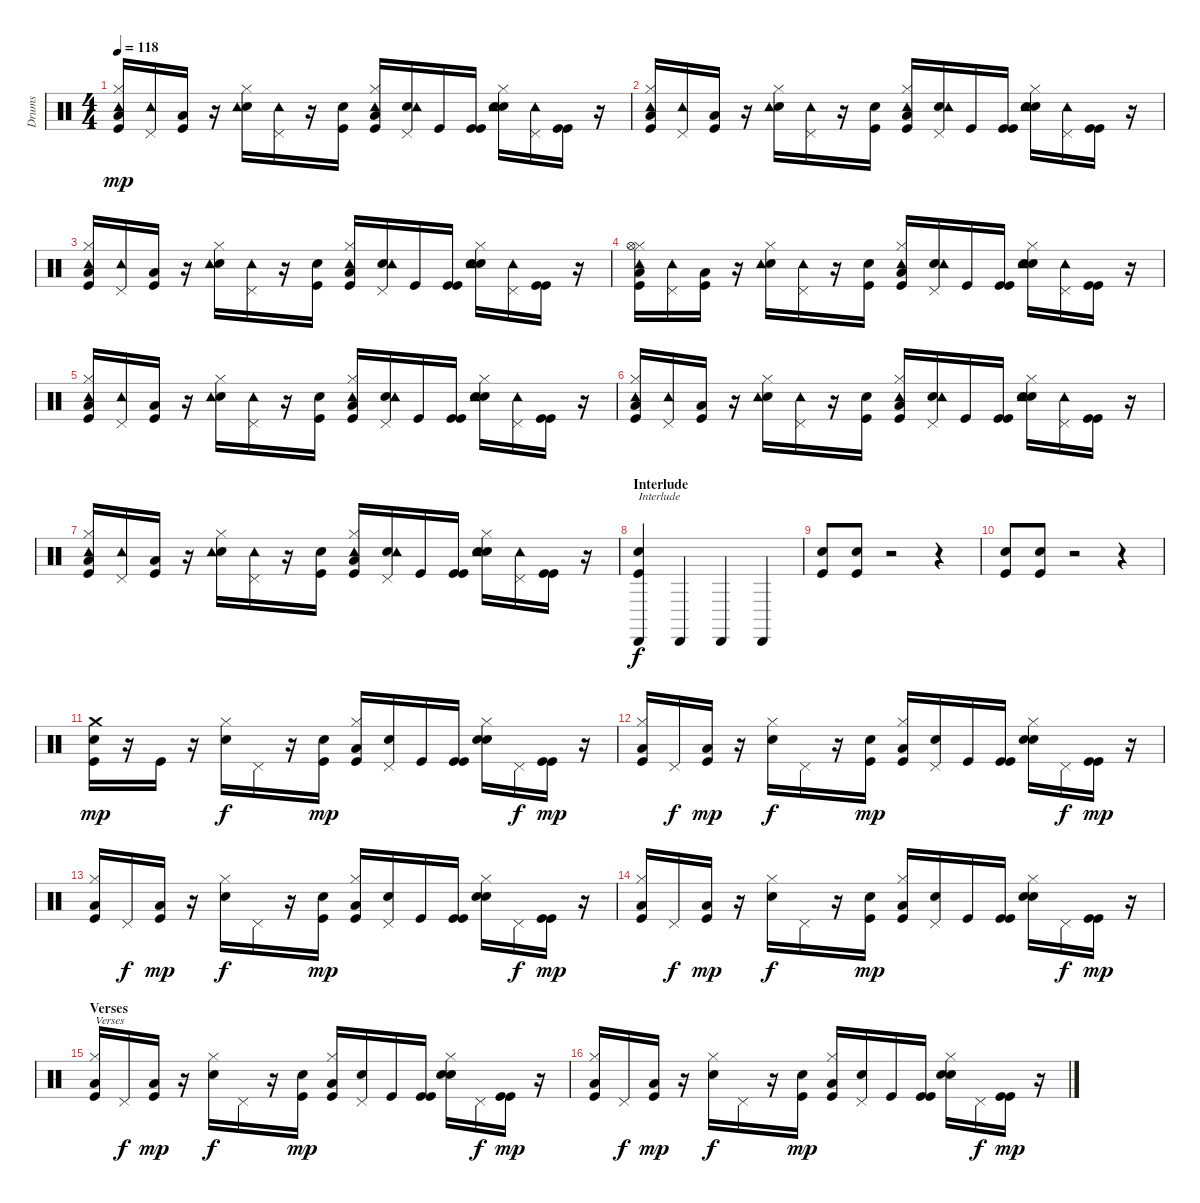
\track ("Drums" "Drums") {instrument percussion}
\staff {score}
\articulation defaults
\ts (4 4)
\tempo 118
\clef neutral
\ks c
("Low Floor Tom (hit)" "Hi-Hat (closed)" "Kick (hit)" "Tambourine (hit)").16{dy mp} ("Pedal Hi-Hat (hit)" "Tambourine (hit)").16 ("Low Floor Tom (hit)" "Kick (hit)").16 r.16 ("Electric Snare (hit)" "Hi-Hat (closed)" "Tambourine (hit)").16 ("Pedal Hi-Hat (hit)" "Tambourine (hit)").16 r.16 ("Kick (hit)" "Electric Snare (hit)").16 ("Low Floor Tom (hit)" "Hi-Hat (closed)" "Kick (hit)" "Tambourine (hit)").16 ("Pedal Hi-Hat (hit)" "Electric Snare (hit)" "Tambourine (hit)").16 "Kick (hit)".16 ("Kick (hit)" "Kick (hit)").16 ("Electric Snare (hit)" "Hi-Hat (closed)" "Electric Snare (hit)" "Tambourine (hit)").16 ("Pedal Hi-Hat (hit)" "Tambourine (hit)").16 ("Kick (hit)" "Kick (hit)").16 r.16 |
("Low Floor Tom (hit)" "Hi-Hat (closed)" "Kick (hit)" "Tambourine (hit)").16 ("Pedal Hi-Hat (hit)" "Tambourine (hit)").16 ("Low Floor Tom (hit)" "Kick (hit)").16 r.16 ("Electric Snare (hit)" "Hi-Hat (closed)" "Tambourine (hit)").16 ("Pedal Hi-Hat (hit)" "Tambourine (hit)").16 r.16 ("Kick (hit)" "Electric Snare (hit)").16 ("Low Floor Tom (hit)" "Hi-Hat (closed)" "Kick (hit)" "Tambourine (hit)").16 ("Pedal Hi-Hat (hit)" "Electric Snare (hit)" "Tambourine (hit)").16 "Kick (hit)".16 ("Kick (hit)" "Kick (hit)").16 ("Electric Snare (hit)" "Hi-Hat (closed)" "Electric Snare (hit)" "Tambourine (hit)").16 ("Pedal Hi-Hat (hit)" "Tambourine (hit)").16 ("Kick (hit)" "Kick (hit)").16 r.16 |
("Low Floor Tom (hit)" "Hi-Hat (closed)" "Kick (hit)" "Tambourine (hit)").16 ("Pedal Hi-Hat (hit)" "Tambourine (hit)").16 ("Low Floor Tom (hit)" "Kick (hit)").16 r.16 ("Electric Snare (hit)" "Hi-Hat (closed)" "Tambourine (hit)").16 ("Pedal Hi-Hat (hit)" "Tambourine (hit)").16 r.16 ("Kick (hit)" "Electric Snare (hit)").16 ("Low Floor Tom (hit)" "Hi-Hat (closed)" "Kick (hit)" "Tambourine (hit)").16 ("Pedal Hi-Hat (hit)" "Electric Snare (hit)" "Tambourine (hit)").16 "Kick (hit)".16 ("Kick (hit)" "Kick (hit)").16 ("Electric Snare (hit)" "Hi-Hat (closed)" "Electric Snare (hit)" "Tambourine (hit)").16 ("Pedal Hi-Hat (hit)" "Tambourine (hit)").16 ("Kick (hit)" "Kick (hit)").16 r.16 |
("Low Floor Tom (hit)" "Hi-Hat (closed)" "Kick (hit)" "Tambourine (hit)" "Hi-Hat (open)").16 ("Pedal Hi-Hat (hit)" "Tambourine (hit)").16 ("Low Floor Tom (hit)" "Kick (hit)").16 r.16 ("Electric Snare (hit)" "Hi-Hat (closed)" "Tambourine (hit)").16 ("Pedal Hi-Hat (hit)" "Tambourine (hit)").16 r.16 ("Kick (hit)" "Electric Snare (hit)").16 ("Low Floor Tom (hit)" "Hi-Hat (closed)" "Kick (hit)" "Tambourine (hit)").16 ("Pedal Hi-Hat (hit)" "Electric Snare (hit)" "Tambourine (hit)").16 "Kick (hit)".16 ("Kick (hit)" "Kick (hit)").16 ("Electric Snare (hit)" "Hi-Hat (closed)" "Electric Snare (hit)" "Tambourine (hit)").16 ("Pedal Hi-Hat (hit)" "Tambourine (hit)").16 ("Kick (hit)" "Kick (hit)").16 r.16 |
("Low Floor Tom (hit)" "Hi-Hat (closed)" "Kick (hit)" "Tambourine (hit)").16 ("Pedal Hi-Hat (hit)" "Tambourine (hit)").16 ("Low Floor Tom (hit)" "Kick (hit)").16 r.16 ("Electric Snare (hit)" "Hi-Hat (closed)" "Tambourine (hit)").16 ("Pedal Hi-Hat (hit)" "Tambourine (hit)").16 r.16 ("Kick (hit)" "Electric Snare (hit)").16 ("Low Floor Tom (hit)" "Hi-Hat (closed)" "Kick (hit)" "Tambourine (hit)").16 ("Pedal Hi-Hat (hit)" "Electric Snare (hit)" "Tambourine (hit)").16 "Kick (hit)".16 ("Kick (hit)" "Kick (hit)").16 ("Electric Snare (hit)" "Hi-Hat (closed)" "Electric Snare (hit)" "Tambourine (hit)").16 ("Pedal Hi-Hat (hit)" "Tambourine (hit)").16 ("Kick (hit)" "Kick (hit)").16 r.16 |
("Low Floor Tom (hit)" "Hi-Hat (closed)" "Kick (hit)" "Tambourine (hit)").16 ("Pedal Hi-Hat (hit)" "Tambourine (hit)").16 ("Low Floor Tom (hit)" "Kick (hit)").16 r.16 ("Electric Snare (hit)" "Hi-Hat (closed)" "Tambourine (hit)").16 ("Pedal Hi-Hat (hit)" "Tambourine (hit)").16 r.16 ("Kick (hit)" "Electric Snare (hit)").16 ("Low Floor Tom (hit)" "Hi-Hat (closed)" "Kick (hit)" "Tambourine (hit)").16 ("Pedal Hi-Hat (hit)" "Electric Snare (hit)" "Tambourine (hit)").16 "Kick (hit)".16 ("Kick (hit)" "Kick (hit)").16 ("Electric Snare (hit)" "Hi-Hat (closed)" "Electric Snare (hit)" "Tambourine (hit)").16 ("Pedal Hi-Hat (hit)" "Tambourine (hit)").16 ("Kick (hit)" "Kick (hit)").16 r.16 |
("Low Floor Tom (hit)" "Hi-Hat (closed)" "Kick (hit)" "Tambourine (hit)").16 ("Pedal Hi-Hat (hit)" "Tambourine (hit)").16 ("Low Floor Tom (hit)" "Kick (hit)").16 r.16 ("Electric Snare (hit)" "Hi-Hat (closed)" "Tambourine (hit)").16 ("Pedal Hi-Hat (hit)" "Tambourine (hit)").16 r.16 ("Kick (hit)" "Electric Snare (hit)").16 ("Low Floor Tom (hit)" "Hi-Hat (closed)" "Kick (hit)" "Tambourine (hit)").16 ("Pedal Hi-Hat (hit)" "Electric Snare (hit)" "Tambourine (hit)").16 "Kick (hit)".16 ("Kick (hit)" "Kick (hit)").16 ("Electric Snare (hit)" "Hi-Hat (closed)" "Electric Snare (hit)" "Tambourine (hit)").16 ("Pedal Hi-Hat (hit)" "Tambourine (hit)").16 ("Kick (hit)" "Kick (hit)").16 r.16 |
\section ("" "Interlude")
("Cabasa (hit)" "Kick (hit)" "Electric Snare (hit)").4{txt "Interlude" dy f} "Cabasa (hit)".4 "Cabasa (hit)".4 "Cabasa (hit)".4 |
("Kick (hit)" "Electric Snare (hit)").8 ("Kick (hit)" "Electric Snare (hit)").8 r.2 r.4 |
("Kick (hit)" "Electric Snare (hit)").8 ("Kick (hit)" "Electric Snare (hit)").8 r.2 r.4 |
("Electric Snare (hit)" "Crash medium (hit)" "Kick (hit)").16{dy mp} r.16 "Kick (hit)".16 r.16 ("Electric Snare (hit)" "Hi-Hat (closed)").16{dy f} "Pedal Hi-Hat (hit)".16 r.16 ("Kick (hit)" "Electric Snare (hit)").16{dy mp} ("Low Floor Tom (hit)" "Hi-Hat (closed)" "Kick (hit)").16 ("Pedal Hi-Hat (hit)" "Electric Snare (hit)").16 "Kick (hit)".16 ("Kick (hit)" "Kick (hit)").16 ("Electric Snare (hit)" "Hi-Hat (closed)" "Electric Snare (hit)").16 "Pedal Hi-Hat (hit)".16{dy f} ("Kick (hit)" "Kick (hit)").16{dy mp} r.16 |
("Low Floor Tom (hit)" "Hi-Hat (closed)" "Kick (hit)").16 "Pedal Hi-Hat (hit)".16{dy f} ("Low Floor Tom (hit)" "Kick (hit)").16{dy mp} r.16 ("Electric Snare (hit)" "Hi-Hat (closed)").16{dy f} "Pedal Hi-Hat (hit)".16 r.16 ("Kick (hit)" "Electric Snare (hit)").16{dy mp} ("Low Floor Tom (hit)" "Hi-Hat (closed)" "Kick (hit)").16 ("Pedal Hi-Hat (hit)" "Electric Snare (hit)").16 "Kick (hit)".16 ("Kick (hit)" "Kick (hit)").16 ("Electric Snare (hit)" "Hi-Hat (closed)" "Electric Snare (hit)").16 "Pedal Hi-Hat (hit)".16{dy f} ("Kick (hit)" "Kick (hit)").16{dy mp} r.16 |
("Low Floor Tom (hit)" "Hi-Hat (closed)" "Kick (hit)").16 "Pedal Hi-Hat (hit)".16{dy f} ("Low Floor Tom (hit)" "Kick (hit)").16{dy mp} r.16 ("Electric Snare (hit)" "Hi-Hat (closed)").16{dy f} "Pedal Hi-Hat (hit)".16 r.16 ("Kick (hit)" "Electric Snare (hit)").16{dy mp} ("Low Floor Tom (hit)" "Hi-Hat (closed)" "Kick (hit)").16 ("Pedal Hi-Hat (hit)" "Electric Snare (hit)").16 "Kick (hit)".16 ("Kick (hit)" "Kick (hit)").16 ("Electric Snare (hit)" "Hi-Hat (closed)" "Electric Snare (hit)").16 "Pedal Hi-Hat (hit)".16{dy f} ("Kick (hit)" "Kick (hit)").16{dy mp} r.16 |
("Low Floor Tom (hit)" "Hi-Hat (closed)" "Kick (hit)").16 "Pedal Hi-Hat (hit)".16{dy f} ("Low Floor Tom (hit)" "Kick (hit)").16{dy mp} r.16 ("Electric Snare (hit)" "Hi-Hat (closed)").16{dy f} "Pedal Hi-Hat (hit)".16 r.16 ("Kick (hit)" "Electric Snare (hit)").16{dy mp} ("Low Floor Tom (hit)" "Hi-Hat (closed)" "Kick (hit)").16 ("Pedal Hi-Hat (hit)" "Electric Snare (hit)").16 "Kick (hit)".16 ("Kick (hit)" "Kick (hit)").16 ("Electric Snare (hit)" "Hi-Hat (closed)" "Electric Snare (hit)").16 "Pedal Hi-Hat (hit)".16{dy f} ("Kick (hit)" "Kick (hit)").16{dy mp} r.16 |
\section ("" "Verses")
("Low Floor Tom (hit)" "Hi-Hat (closed)" "Kick (hit)").16{txt "Verses"} "Pedal Hi-Hat (hit)".16{dy f} ("Low Floor Tom (hit)" "Kick (hit)").16{dy mp} r.16 ("Electric Snare (hit)" "Hi-Hat (closed)").16{dy f} "Pedal Hi-Hat (hit)".16 r.16 ("Kick (hit)" "Electric Snare (hit)").16{dy mp} ("Low Floor Tom (hit)" "Hi-Hat (closed)" "Kick (hit)").16 ("Pedal Hi-Hat (hit)" "Electric Snare (hit)").16 "Kick (hit)".16 ("Kick (hit)" "Kick (hit)").16 ("Electric Snare (hit)" "Hi-Hat (closed)" "Electric Snare (hit)").16 "Pedal Hi-Hat (hit)".16{dy f} ("Kick (hit)" "Kick (hit)").16{dy mp} r.16 |
("Low Floor Tom (hit)" "Hi-Hat (closed)" "Kick (hit)").16 "Pedal Hi-Hat (hit)".16{dy f} ("Low Floor Tom (hit)" "Kick (hit)").16{dy mp} r.16 ("Electric Snare (hit)" "Hi-Hat (closed)").16{dy f} "Pedal Hi-Hat (hit)".16 r.16 ("Kick (hit)" "Electric Snare (hit)").16{dy mp} ("Low Floor Tom (hit)" "Hi-Hat (closed)" "Kick (hit)").16 ("Pedal Hi-Hat (hit)" "Electric Snare (hit)").16 "Kick (hit)".16 ("Kick (hit)" "Kick (hit)").16 ("Electric Snare (hit)" "Hi-Hat (closed)" "Electric Snare (hit)").16 "Pedal Hi-Hat (hit)".16{dy f} ("Kick (hit)" "Kick (hit)").16{dy mp} r.16
